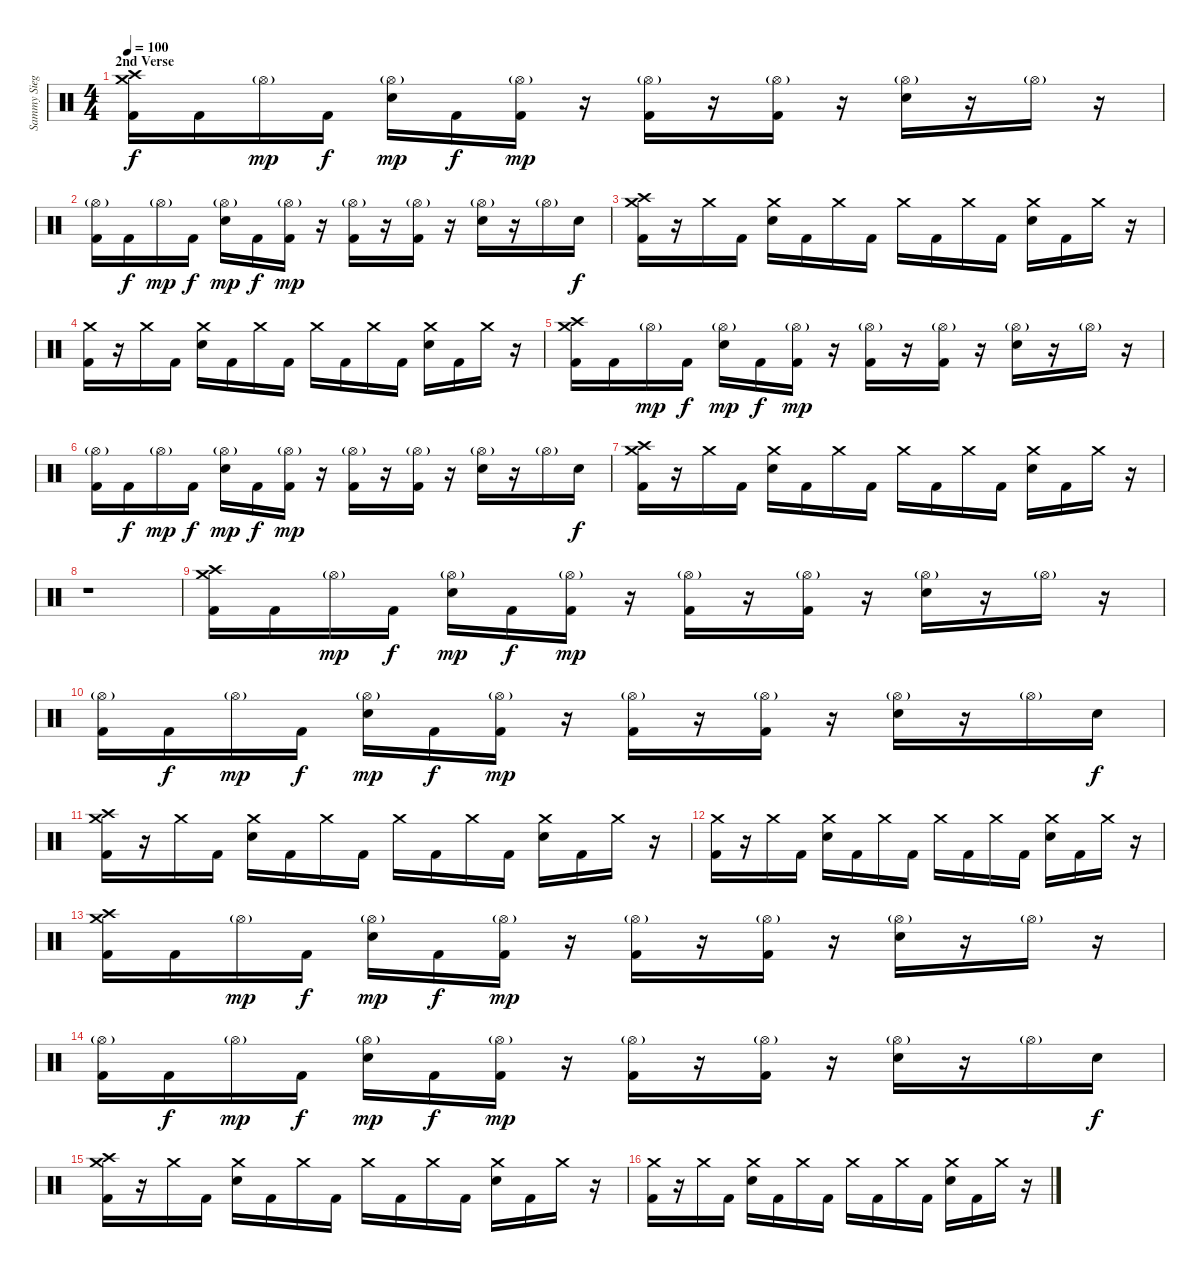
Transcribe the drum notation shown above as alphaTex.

\track ("Sammy Siegler" "Sammy Sieg") {instrument percussion}
\staff {score}
\articulation defaults
\ts (4 4)
\section ("" "2nd Verse")
\tempo 100
\clef neutral
\ks c
("Crash medium (hit)" "Crash high (hit)" "Kick (hit) 2").16{dy f} "Kick (hit) 2".16 "Hi-Hat (open)"{g}.16{dy mp} "Kick (hit) 2".16{dy f} ("Hi-Hat (open)"{g} "Electric Snare (hit)").16{dy mp} "Kick (hit) 2".16{dy f} ("Hi-Hat (open)"{g} "Kick (hit) 2").16{dy mp} r.16 ("Hi-Hat (open)"{g} "Kick (hit) 2").16 r.16 ("Hi-Hat (open)"{g} "Kick (hit) 2").16 r.16 ("Hi-Hat (open)"{g} "Electric Snare (hit)").16 r.16 "Hi-Hat (open)"{g}.16 r.16 |
("Hi-Hat (open)"{g} "Kick (hit) 2").16 "Kick (hit) 2".16{dy f} "Hi-Hat (open)"{g}.16{dy mp} "Kick (hit) 2".16{dy f} ("Hi-Hat (open)"{g} "Electric Snare (hit)").16{dy mp} "Kick (hit) 2".16{dy f} ("Hi-Hat (open)"{g} "Kick (hit) 2").16{dy mp} r.16 ("Hi-Hat (open)"{g} "Kick (hit) 2").16 r.16 ("Hi-Hat (open)"{g} "Kick (hit) 2").16 r.16 ("Hi-Hat (open)"{g} "Electric Snare (hit)").16 r.16 "Hi-Hat (open)"{g}.16 "Electric Snare (hit)".16{dy f} |
("Crash medium (hit)" "Crash high (hit)" "Kick (hit) 2").16 r.16 "Crash medium (hit)".16 "Kick (hit) 2".16 ("Crash medium (hit)" "Electric Snare (hit)").16 "Kick (hit) 2".16 "Crash medium (hit)".16 "Kick (hit) 2".16 "Crash medium (hit)".16 "Kick (hit) 2".16 "Crash medium (hit)".16 "Kick (hit) 2".16 ("Crash medium (hit)" "Electric Snare (hit)").16 "Kick (hit) 2".16 "Crash medium (hit)".16 r.16 |
("Crash medium (hit)" "Kick (hit) 2").16 r.16 "Crash medium (hit)".16 "Kick (hit) 2".16 ("Crash medium (hit)" "Electric Snare (hit)").16 "Kick (hit) 2".16 "Crash medium (hit)".16 "Kick (hit) 2".16 "Crash medium (hit)".16 "Kick (hit) 2".16 "Crash medium (hit)".16 "Kick (hit) 2".16 ("Crash medium (hit)" "Electric Snare (hit)").16 "Kick (hit) 2".16 "Crash medium (hit)".16 r.16 |
("Crash medium (hit)" "Crash high (hit)" "Kick (hit) 2").16 "Kick (hit) 2".16 "Hi-Hat (open)"{g}.16{dy mp} "Kick (hit) 2".16{dy f} ("Hi-Hat (open)"{g} "Electric Snare (hit)").16{dy mp} "Kick (hit) 2".16{dy f} ("Hi-Hat (open)"{g} "Kick (hit) 2").16{dy mp} r.16 ("Hi-Hat (open)"{g} "Kick (hit) 2").16 r.16 ("Hi-Hat (open)"{g} "Kick (hit) 2").16 r.16 ("Hi-Hat (open)"{g} "Electric Snare (hit)").16 r.16 "Hi-Hat (open)"{g}.16 r.16 |
("Hi-Hat (open)"{g} "Kick (hit) 2").16 "Kick (hit) 2".16{dy f} "Hi-Hat (open)"{g}.16{dy mp} "Kick (hit) 2".16{dy f} ("Hi-Hat (open)"{g} "Electric Snare (hit)").16{dy mp} "Kick (hit) 2".16{dy f} ("Hi-Hat (open)"{g} "Kick (hit) 2").16{dy mp} r.16 ("Hi-Hat (open)"{g} "Kick (hit) 2").16 r.16 ("Hi-Hat (open)"{g} "Kick (hit) 2").16 r.16 ("Hi-Hat (open)"{g} "Electric Snare (hit)").16 r.16 "Hi-Hat (open)"{g}.16 "Electric Snare (hit)".16{dy f} |
("Crash medium (hit)" "Crash high (hit)" "Kick (hit) 2").16 r.16 "Crash medium (hit)".16 "Kick (hit) 2".16 ("Crash medium (hit)" "Electric Snare (hit)").16 "Kick (hit) 2".16 "Crash medium (hit)".16 "Kick (hit) 2".16 "Crash medium (hit)".16 "Kick (hit) 2".16 "Crash medium (hit)".16 "Kick (hit) 2".16 ("Crash medium (hit)" "Electric Snare (hit)").16 "Kick (hit) 2".16 "Crash medium (hit)".16 r.16 |
r.1 |
("Crash medium (hit)" "Crash high (hit)" "Kick (hit) 2").16 "Kick (hit) 2".16 "Hi-Hat (open)"{g}.16{dy mp} "Kick (hit) 2".16{dy f} ("Hi-Hat (open)"{g} "Electric Snare (hit)").16{dy mp} "Kick (hit) 2".16{dy f} ("Hi-Hat (open)"{g} "Kick (hit) 2").16{dy mp} r.16 ("Hi-Hat (open)"{g} "Kick (hit) 2").16 r.16 ("Hi-Hat (open)"{g} "Kick (hit) 2").16 r.16 ("Hi-Hat (open)"{g} "Electric Snare (hit)").16 r.16 "Hi-Hat (open)"{g}.16 r.16 |
("Hi-Hat (open)"{g} "Kick (hit) 2").16 "Kick (hit) 2".16{dy f} "Hi-Hat (open)"{g}.16{dy mp} "Kick (hit) 2".16{dy f} ("Hi-Hat (open)"{g} "Electric Snare (hit)").16{dy mp} "Kick (hit) 2".16{dy f} ("Hi-Hat (open)"{g} "Kick (hit) 2").16{dy mp} r.16 ("Hi-Hat (open)"{g} "Kick (hit) 2").16 r.16 ("Hi-Hat (open)"{g} "Kick (hit) 2").16 r.16 ("Hi-Hat (open)"{g} "Electric Snare (hit)").16 r.16 "Hi-Hat (open)"{g}.16 "Electric Snare (hit)".16{dy f} |
("Crash medium (hit)" "Crash high (hit)" "Kick (hit) 2").16 r.16 "Crash medium (hit)".16 "Kick (hit) 2".16 ("Crash medium (hit)" "Electric Snare (hit)").16 "Kick (hit) 2".16 "Crash medium (hit)".16 "Kick (hit) 2".16 "Crash medium (hit)".16 "Kick (hit) 2".16 "Crash medium (hit)".16 "Kick (hit) 2".16 ("Crash medium (hit)" "Electric Snare (hit)").16 "Kick (hit) 2".16 "Crash medium (hit)".16 r.16 |
("Crash medium (hit)" "Kick (hit) 2").16 r.16 "Crash medium (hit)".16 "Kick (hit) 2".16 ("Crash medium (hit)" "Electric Snare (hit)").16 "Kick (hit) 2".16 "Crash medium (hit)".16 "Kick (hit) 2".16 "Crash medium (hit)".16 "Kick (hit) 2".16 "Crash medium (hit)".16 "Kick (hit) 2".16 ("Crash medium (hit)" "Electric Snare (hit)").16 "Kick (hit) 2".16 "Crash medium (hit)".16 r.16 |
("Crash medium (hit)" "Crash high (hit)" "Kick (hit) 2").16 "Kick (hit) 2".16 "Hi-Hat (open)"{g}.16{dy mp} "Kick (hit) 2".16{dy f} ("Hi-Hat (open)"{g} "Electric Snare (hit)").16{dy mp} "Kick (hit) 2".16{dy f} ("Hi-Hat (open)"{g} "Kick (hit) 2").16{dy mp} r.16 ("Hi-Hat (open)"{g} "Kick (hit) 2").16 r.16 ("Hi-Hat (open)"{g} "Kick (hit) 2").16 r.16 ("Hi-Hat (open)"{g} "Electric Snare (hit)").16 r.16 "Hi-Hat (open)"{g}.16 r.16 |
("Hi-Hat (open)"{g} "Kick (hit) 2").16 "Kick (hit) 2".16{dy f} "Hi-Hat (open)"{g}.16{dy mp} "Kick (hit) 2".16{dy f} ("Hi-Hat (open)"{g} "Electric Snare (hit)").16{dy mp} "Kick (hit) 2".16{dy f} ("Hi-Hat (open)"{g} "Kick (hit) 2").16{dy mp} r.16 ("Hi-Hat (open)"{g} "Kick (hit) 2").16 r.16 ("Hi-Hat (open)"{g} "Kick (hit) 2").16 r.16 ("Hi-Hat (open)"{g} "Electric Snare (hit)").16 r.16 "Hi-Hat (open)"{g}.16 "Electric Snare (hit)".16{dy f} |
("Crash medium (hit)" "Crash high (hit)" "Kick (hit) 2").16 r.16 "Crash medium (hit)".16 "Kick (hit) 2".16 ("Crash medium (hit)" "Electric Snare (hit)").16 "Kick (hit) 2".16 "Crash medium (hit)".16 "Kick (hit) 2".16 "Crash medium (hit)".16 "Kick (hit) 2".16 "Crash medium (hit)".16 "Kick (hit) 2".16 ("Crash medium (hit)" "Electric Snare (hit)").16 "Kick (hit) 2".16 "Crash medium (hit)".16 r.16 |
("Crash medium (hit)" "Kick (hit) 2").16 r.16 "Crash medium (hit)".16 "Kick (hit) 2".16 ("Crash medium (hit)" "Electric Snare (hit)").16 "Kick (hit) 2".16 "Crash medium (hit)".16 "Kick (hit) 2".16 "Crash medium (hit)".16 "Kick (hit) 2".16 "Crash medium (hit)".16 "Kick (hit) 2".16 ("Crash medium (hit)" "Electric Snare (hit)").16 "Kick (hit) 2".16 "Crash medium (hit)".16 r.16
